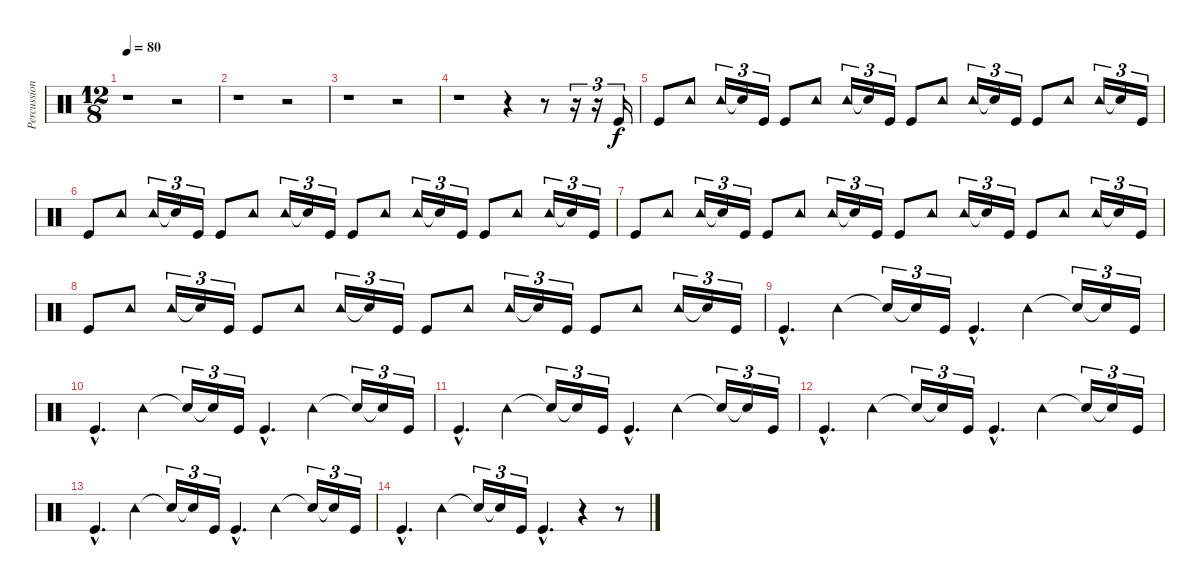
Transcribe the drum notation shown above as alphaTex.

\track ("Percussion" "Percussion") {instrument percussion}
\staff {score}
\articulation defaults
\ts (12 8)
\tempo 80
\clef neutral
\ks c
r.1{dy f} r.2 |
r.1 r.2 |
r.1 r.2 |
r.1 r.4 r.8 r.16{tu (3 2)} r.16{tu (3 2)} "Kick (hit)".16{tu (3 2)} |
"Kick (hit)".8 "Tambourine (hit)".8 "Tambourine (hit)".16{tu (3 2)} "Snare (hit)"{t}.16{tu (3 2)} "Kick (hit)".16{tu (3 2)} "Kick (hit)".8 "Tambourine (hit)".8 "Tambourine (hit)".16{tu (3 2)} "Snare (hit)"{t}.16{tu (3 2)} "Kick (hit)".16{tu (3 2)} "Kick (hit)".8 "Tambourine (hit)".8 "Tambourine (hit)".16{tu (3 2)} "Snare (hit)"{t}.16{tu (3 2)} "Kick (hit)".16{tu (3 2)} "Kick (hit)".8 "Tambourine (hit)".8 "Tambourine (hit)".16{tu (3 2)} "Snare (hit)"{t}.16{tu (3 2)} "Kick (hit)".16{tu (3 2)} |
"Kick (hit)".8 "Tambourine (hit)".8 "Tambourine (hit)".16{tu (3 2)} "Snare (hit)"{t}.16{tu (3 2)} "Kick (hit)".16{tu (3 2)} "Kick (hit)".8 "Tambourine (hit)".8 "Tambourine (hit)".16{tu (3 2)} "Snare (hit)"{t}.16{tu (3 2)} "Kick (hit)".16{tu (3 2)} "Kick (hit)".8 "Tambourine (hit)".8 "Tambourine (hit)".16{tu (3 2)} "Snare (hit)"{t}.16{tu (3 2)} "Kick (hit)".16{tu (3 2)} "Kick (hit)".8 "Tambourine (hit)".8 "Tambourine (hit)".16{tu (3 2)} "Snare (hit)"{t}.16{tu (3 2)} "Kick (hit)".16{tu (3 2)} |
"Kick (hit)".8 "Tambourine (hit)".8 "Tambourine (hit)".16{tu (3 2)} "Snare (hit)"{t}.16{tu (3 2)} "Kick (hit)".16{tu (3 2)} "Kick (hit)".8 "Tambourine (hit)".8 "Tambourine (hit)".16{tu (3 2)} "Snare (hit)"{t}.16{tu (3 2)} "Kick (hit)".16{tu (3 2)} "Kick (hit)".8 "Tambourine (hit)".8 "Tambourine (hit)".16{tu (3 2)} "Snare (hit)"{t}.16{tu (3 2)} "Kick (hit)".16{tu (3 2)} "Kick (hit)".8 "Tambourine (hit)".8 "Tambourine (hit)".16{tu (3 2)} "Snare (hit)"{t}.16{tu (3 2)} "Kick (hit)".16{tu (3 2)} |
"Kick (hit)".8 "Tambourine (hit)".8 "Tambourine (hit)".16{tu (3 2)} "Snare (hit)"{t}.16{tu (3 2)} "Kick (hit)".16{tu (3 2)} "Kick (hit)".8 "Tambourine (hit)".8 "Tambourine (hit)".16{tu (3 2)} "Snare (hit)"{t}.16{tu (3 2)} "Kick (hit)".16{tu (3 2)} "Kick (hit)".8 "Tambourine (hit)".8 "Tambourine (hit)".16{tu (3 2)} "Snare (hit)"{t}.16{tu (3 2)} "Kick (hit)".16{tu (3 2)} "Kick (hit)".8 "Tambourine (hit)".8 "Tambourine (hit)".16{tu (3 2)} "Snare (hit)"{t}.16{tu (3 2)} "Kick (hit)".16{tu (3 2)} |
"Kick (hit)"{hac}.4{d} "Tambourine (hit)".4 "Snare (hit)"{t}.16{tu (3 2)} "Snare (hit)"{t}.16{tu (3 2)} "Kick (hit)".16{tu (3 2)} "Kick (hit)"{hac}.4{d} "Tambourine (hit)".4 "Snare (hit)"{t}.16{tu (3 2)} "Snare (hit)"{t}.16{tu (3 2)} "Kick (hit)".16{tu (3 2)} |
"Kick (hit)"{hac}.4{d} "Tambourine (hit)".4 "Snare (hit)"{t}.16{tu (3 2)} "Snare (hit)"{t}.16{tu (3 2)} "Kick (hit)".16{tu (3 2)} "Kick (hit)"{hac}.4{d} "Tambourine (hit)".4 "Snare (hit)"{t}.16{tu (3 2)} "Snare (hit)"{t}.16{tu (3 2)} "Kick (hit)".16{tu (3 2)} |
"Kick (hit)"{hac}.4{d} "Tambourine (hit)".4 "Snare (hit)"{t}.16{tu (3 2)} "Snare (hit)"{t}.16{tu (3 2)} "Kick (hit)".16{tu (3 2)} "Kick (hit)"{hac}.4{d} "Tambourine (hit)".4 "Snare (hit)"{t}.16{tu (3 2)} "Snare (hit)"{t}.16{tu (3 2)} "Kick (hit)".16{tu (3 2)} |
"Kick (hit)"{hac}.4{d} "Tambourine (hit)".4 "Snare (hit)"{t}.16{tu (3 2)} "Snare (hit)"{t}.16{tu (3 2)} "Kick (hit)".16{tu (3 2)} "Kick (hit)"{hac}.4{d} "Tambourine (hit)".4 "Snare (hit)"{t}.16{tu (3 2)} "Snare (hit)"{t}.16{tu (3 2)} "Kick (hit)".16{tu (3 2)} |
"Kick (hit)"{hac}.4{d} "Tambourine (hit)".4 "Snare (hit)"{t}.16{tu (3 2)} "Snare (hit)"{t}.16{tu (3 2)} "Kick (hit)".16{tu (3 2)} "Kick (hit)"{hac}.4{d} "Tambourine (hit)".4 "Snare (hit)"{t}.16{tu (3 2)} "Snare (hit)"{t}.16{tu (3 2)} "Kick (hit)".16{tu (3 2)} |
"Kick (hit)"{hac}.4{d} "Tambourine (hit)".4 "Snare (hit)"{t}.16{tu (3 2)} "Snare (hit)"{t}.16{tu (3 2)} "Kick (hit)".16{tu (3 2)} "Kick (hit)"{hac}.4{d} r.4 r.8
